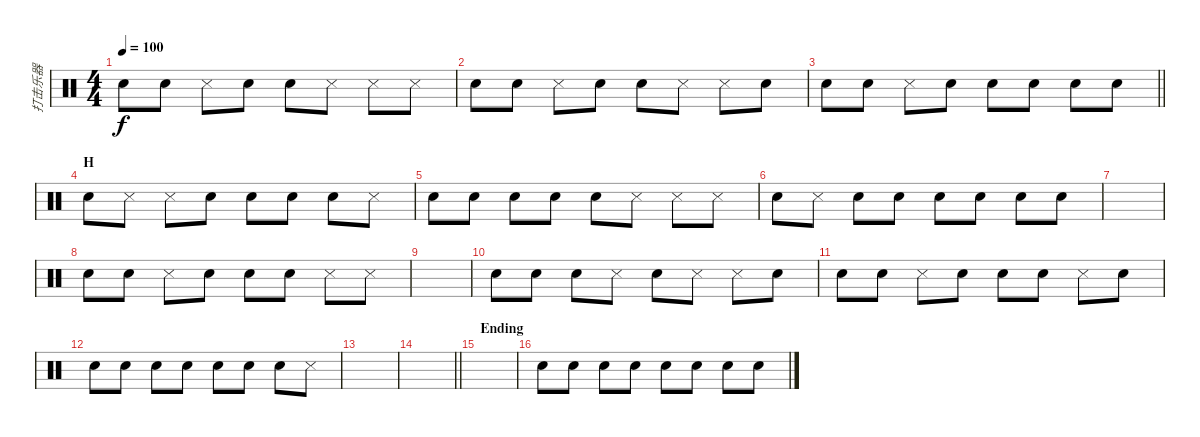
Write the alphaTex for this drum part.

\track ("打击乐器" "打击乐器") {instrument percussion}
\staff {score}
\articulation defaults
\ts (4 4)
\tempo 100
\clef neutral
\ks c "Snare (hit)".8{dy f} "Snare (hit)".8 "Metronome (hit)".8 "Snare (hit)".8 "Snare (hit)".8 "Metronome (hit)".8 "Metronome (hit)".8 "Metronome (hit)".8
|
"Snare (hit)".8 "Snare (hit)".8 "Metronome (hit)".8 "Snare (hit)".8 "Snare (hit)".8 "Metronome (hit)".8 "Metronome (hit)".8 "Snare (hit)".8 |
\barLineRight lightlight "Snare (hit)".8 "Snare (hit)".8 "Metronome (hit)".8 "Snare (hit)".8 "Snare (hit)".8 "Snare (hit)".8 "Snare (hit)".8 "Snare (hit)".8
|
\section ("" "H")
"Snare (hit)".8 "Metronome (hit)".8 "Metronome (hit)".8 "Snare (hit)".8 "Snare (hit)".8 "Snare (hit)".8 "Snare (hit)".8 "Metronome (hit)".8 |
"Snare (hit)".8 "Snare (hit)".8 "Snare (hit)".8 "Snare (hit)".8 "Snare (hit)".8 "Metronome (hit)".8 "Metronome (hit)".8 "Metronome (hit)".8 |
"Snare (hit)".8 "Metronome (hit)".8 "Snare (hit)".8 "Snare (hit)".8 "Snare (hit)".8 "Snare (hit)".8 "Snare (hit)".8 "Snare (hit)".8 |
|
"Snare (hit)".8 "Snare (hit)".8 "Metronome (hit)".8 "Snare (hit)".8 "Snare (hit)".8 "Snare (hit)".8 "Metronome (hit)".8 "Metronome (hit)".8 |
|
"Snare (hit)".8 "Snare (hit)".8 "Snare (hit)".8 "Metronome (hit)".8 "Snare (hit)".8 "Metronome (hit)".8 "Metronome (hit)".8 "Snare (hit)".8 |
"Snare (hit)".8 "Snare (hit)".8 "Metronome (hit)".8 "Snare (hit)".8 "Snare (hit)".8 "Snare (hit)".8 "Metronome (hit)".8 "Snare (hit)".8 |
"Snare (hit)".8 "Snare (hit)".8 "Snare (hit)".8 "Snare (hit)".8 "Snare (hit)".8 "Snare (hit)".8 "Snare (hit)".8 "Metronome (hit)".8 |
|
\barLineRight lightlight
|
\section ("" "Ending")
|
"Snare (hit)".8 "Snare (hit)".8 "Snare (hit)".8 "Snare (hit)".8 "Snare (hit)".8 "Snare (hit)".8 "Snare (hit)".8 "Snare (hit)".8
